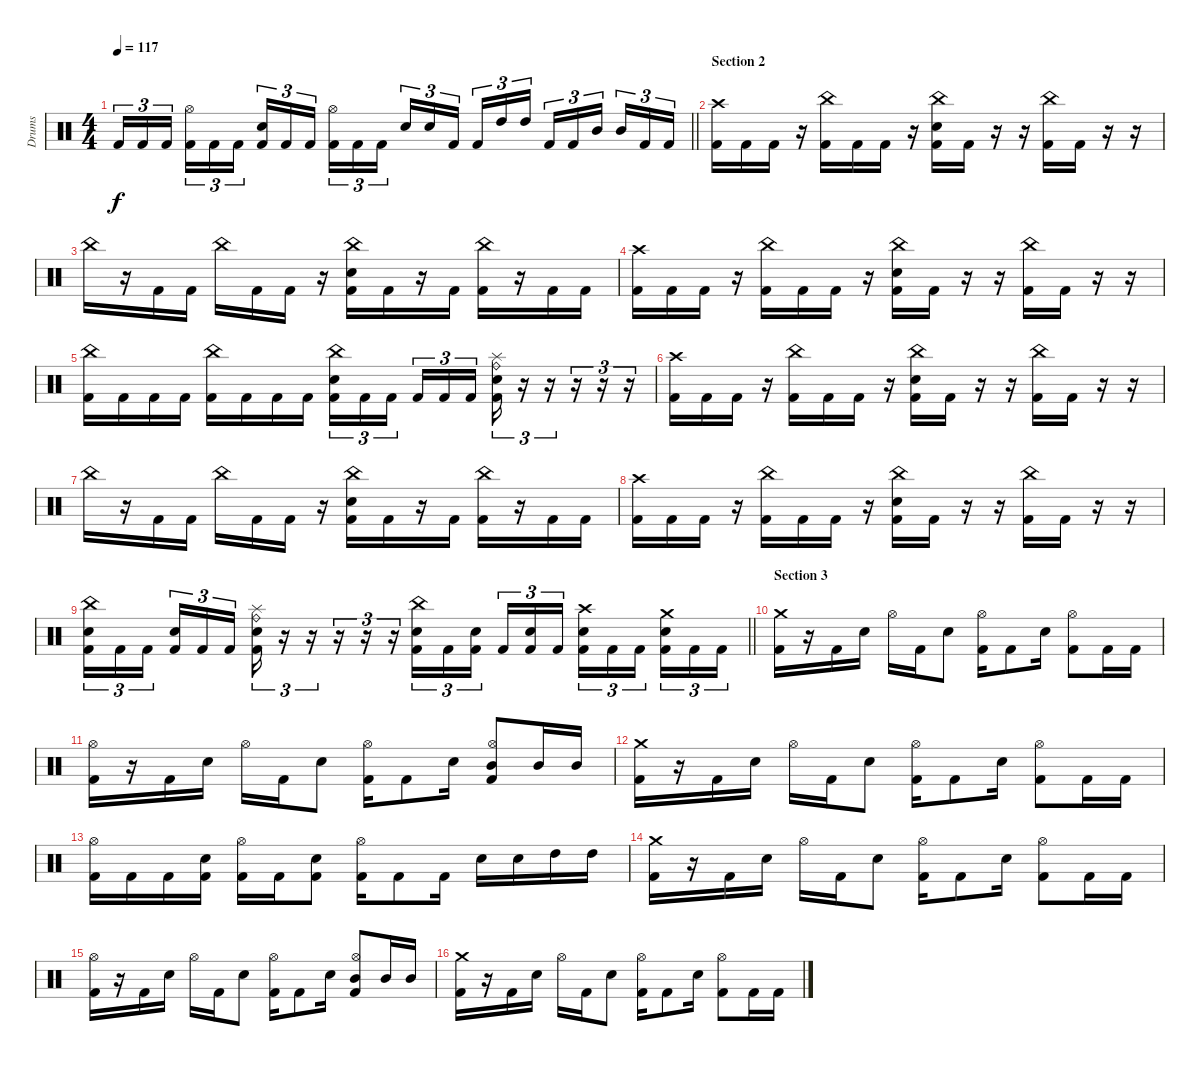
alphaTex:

\track ("Drums" "Drums") {instrument percussion}
\staff {score}
\articulation defaults
\ts (4 4)
\tempo 117
\clef neutral
\barLineRight lightlight
\ks c "Kick (hit) 2".16{tu (3 2) dy f} "Kick (hit) 2".16{tu (3 2)} "Kick (hit) 2".16{tu (3 2) beam splitsecondary}
("Hi-Hat (open)" "Kick (hit) 2").16{tu (3 2)} "Kick (hit) 2".16{tu (3 2)} "Kick (hit) 2".16{tu (3 2)} ("Snare (hit) 2" "Kick (hit) 2").16{tu (3 2)} "Kick (hit) 2".16{tu (3 2)} "Kick (hit) 2".16{tu (3 2) beam splitsecondary} ("Hi-Hat (open)" "Kick (hit) 2").16{tu (3 2)} "Kick (hit) 2".16{tu (3 2)} "Kick (hit) 2".16{tu (3 2)} "Snare (hit) 2".16{tu (3 2)} "Snare (hit) 2".16{tu (3 2)} "Kick (hit) 2".16{tu (3 2) beam splitsecondary} "Kick (hit) 2".16{tu (3 2)} "High Tom (hit)".16{tu (3 2)} "High Tom (hit)".16{tu (3 2)} "Kick (hit) 2".16{tu (3 2)} "Kick (hit) 2".16{tu (3 2)} "Mid Tom (hit)".16{tu (3 2) beam splitsecondary} "Mid Tom (hit)".16{tu (3 2)} "Kick (hit) 2".16{tu (3 2)} "Kick (hit) 2".16{tu (3 2)} |
\section ("" "Section 2")
("Crash high (hit)" "Kick (hit) 2").16 "Kick (hit) 2".16 "Kick (hit) 2".16 r.16 ("China (hit)" "Kick (hit) 2").16 "Kick (hit) 2".16 "Kick (hit) 2".16 r.16 ("China (hit)" "Snare (hit) 2" "Kick (hit) 2").16 "Kick (hit) 2".16 r.16 r.16 ("China (hit)" "Kick (hit) 2").16 "Kick (hit) 2".16 r.16 r.16 |
"China (hit)".16 r.16 "Kick (hit) 2".16 "Kick (hit) 2".16 "China (hit)".16 "Kick (hit) 2".16 "Kick (hit) 2".16 r.16 ("China (hit)" "Snare (hit) 2" "Kick (hit) 2").16 "Kick (hit) 2".16 r.16 "Kick (hit) 2".16 ("China (hit)" "Kick (hit) 2").16 r.16 "Kick (hit) 2".16 "Kick (hit) 2".16 |
("Crash high (hit)" "Kick (hit) 2").16 "Kick (hit) 2".16 "Kick (hit) 2".16 r.16 ("China (hit)" "Kick (hit) 2").16 "Kick (hit) 2".16 "Kick (hit) 2".16 r.16 ("China (hit)" "Snare (hit) 2" "Kick (hit) 2").16 "Kick (hit) 2".16 r.16 r.16 ("China (hit)" "Kick (hit) 2").16 "Kick (hit) 2".16 r.16 r.16 |
("China (hit)" "Kick (hit) 2").16 "Kick (hit) 2".16 "Kick (hit) 2".16 "Kick (hit) 2".16 ("China (hit)" "Kick (hit) 2").16 "Kick (hit) 2".16 "Kick (hit) 2".16 "Kick (hit) 2".16 ("China (hit)" "Snare (hit) 2" "Kick (hit) 2").16{tu (3 2)} "Kick (hit) 2".16{tu (3 2)} "Kick (hit) 2".16{tu (3 2) beam splitsecondary} "Kick (hit) 2".16{tu (3 2)} "Kick (hit) 2".16{tu (3 2)} "Kick (hit) 2".16{tu (3 2)} ("Ride (bell)" "Splash (hit)" "Snare (hit) 2" "Kick (hit) 2").16{tu (3 2)} r.16{tu (3 2)} r.16{tu (3 2)} r.16{tu (3 2)} r.16{tu (3 2)} r.16{tu (3 2)} |
("Crash high (hit)" "Kick (hit) 2").16 "Kick (hit) 2".16 "Kick (hit) 2".16 r.16 ("China (hit)" "Kick (hit) 2").16 "Kick (hit) 2".16 "Kick (hit) 2".16 r.16 ("China (hit)" "Snare (hit) 2" "Kick (hit) 2").16 "Kick (hit) 2".16 r.16 r.16 ("China (hit)" "Kick (hit) 2").16 "Kick (hit) 2".16 r.16 r.16 |
"China (hit)".16 r.16 "Kick (hit) 2".16 "Kick (hit) 2".16 "China (hit)".16 "Kick (hit) 2".16 "Kick (hit) 2".16 r.16 ("China (hit)" "Snare (hit) 2" "Kick (hit) 2").16 "Kick (hit) 2".16 r.16 "Kick (hit) 2".16 ("China (hit)" "Kick (hit) 2").16 r.16 "Kick (hit) 2".16 "Kick (hit) 2".16 |
("Crash high (hit)" "Kick (hit) 2").16 "Kick (hit) 2".16 "Kick (hit) 2".16 r.16 ("China (hit)" "Kick (hit) 2").16 "Kick (hit) 2".16 "Kick (hit) 2".16 r.16 ("China (hit)" "Snare (hit) 2" "Kick (hit) 2").16 "Kick (hit) 2".16 r.16 r.16 ("China (hit)" "Kick (hit) 2").16 "Kick (hit) 2".16 r.16 r.16 |
\barLineRight lightlight
("China (hit)" "Snare (hit) 2" "Kick (hit) 2").16{tu (3 2)} "Kick (hit) 2".16{tu (3 2)} "Kick (hit) 2".16{tu (3 2) beam splitsecondary} ("Snare (hit) 2" "Kick (hit) 2").16{tu (3 2)} "Kick (hit) 2".16{tu (3 2)} "Kick (hit) 2".16{tu (3 2)} ("Splash (hit)" "Ride (bell)" "Snare (hit) 2" "Kick (hit) 2").16{tu (3 2)} r.16{tu (3 2)} r.16{tu (3 2)} r.16{tu (3 2)} r.16{tu (3 2)} r.16{tu (3 2)} ("China (hit)" "Snare (hit) 2" "Kick (hit) 2").16{tu (3 2)} "Kick (hit) 2".16{tu (3 2)} ("Snare (hit) 2" "Kick (hit) 2").16{tu (3 2) beam splitsecondary} "Kick (hit) 2".16{tu (3 2)} ("Snare (hit) 2" "Kick (hit) 2").16{tu (3 2)} "Kick (hit) 2".16{tu (3 2)} ("Crash high (hit)" "Snare (hit) 2" "Kick (hit) 2").16{tu (3 2)} "Kick (hit) 2".16{tu (3 2)} "Kick (hit) 2".16{tu (3 2) beam splitsecondary} ("Crash medium (hit)" "Snare (hit) 2" "Kick (hit) 2").16{tu (3 2)} "Kick (hit) 2".16{tu (3 2)} "Kick (hit) 2".16{tu (3 2)} |
\section ("" "Section 3")
("Crash medium (hit)" "Kick (hit) 2").16 r.16 "Kick (hit) 2".16 "Snare (hit) 2".16 "Hi-Hat (open)".16 "Kick (hit) 2".16 "Snare (hit) 2".8 ("Hi-Hat (open)" "Kick (hit) 2").16 "Kick (hit) 2".8 "Snare (hit) 2".16 ("Hi-Hat (open)" "Kick (hit) 2").8 "Kick (hit) 2".16 "Kick (hit) 2".16 |
("Hi-Hat (open)" "Kick (hit) 2").16 r.16 "Kick (hit) 2".16 "Snare (hit) 2".16 "Hi-Hat (open)".16 "Kick (hit) 2".16 "Snare (hit) 2".8 ("Hi-Hat (open)" "Kick (hit) 2").16 "Kick (hit) 2".8 "Snare (hit) 2".16 ("Hi-Hat (open)" "Mid Tom (hit)" "Kick (hit) 2").8 "Mid Tom (hit)".16 "Mid Tom (hit)".16 |
("Crash medium (hit)" "Kick (hit) 2").16 r.16 "Kick (hit) 2".16 "Snare (hit) 2".16 "Hi-Hat (open)".16 "Kick (hit) 2".16 "Snare (hit) 2".8 ("Hi-Hat (open)" "Kick (hit) 2").16 "Kick (hit) 2".8 "Snare (hit) 2".16 ("Hi-Hat (open)" "Kick (hit) 2").8 "Kick (hit) 2".16 "Kick (hit) 2".16 |
("Hi-Hat (open)" "Kick (hit) 2").16 "Kick (hit) 2".16 "Kick (hit) 2".16 ("Snare (hit) 2" "Kick (hit) 2").16 ("Hi-Hat (open)" "Kick (hit) 2").16 "Kick (hit) 2".16 ("Snare (hit) 2" "Kick (hit) 2").8 ("Hi-Hat (open)" "Kick (hit) 2").16 "Kick (hit) 2".8 "Kick (hit) 2".16 "Snare (hit) 2".16 "Snare (hit) 2".16 "High Tom (hit)".16 "High Tom (hit)".16 |
("Crash medium (hit)" "Kick (hit) 2").16 r.16 "Kick (hit) 2".16 "Snare (hit) 2".16 "Hi-Hat (open)".16 "Kick (hit) 2".16 "Snare (hit) 2".8 ("Hi-Hat (open)" "Kick (hit) 2").16 "Kick (hit) 2".8 "Snare (hit) 2".16 ("Hi-Hat (open)" "Kick (hit) 2").8 "Kick (hit) 2".16 "Kick (hit) 2".16 |
("Hi-Hat (open)" "Kick (hit) 2").16 r.16 "Kick (hit) 2".16 "Snare (hit) 2".16 "Hi-Hat (open)".16 "Kick (hit) 2".16 "Snare (hit) 2".8 ("Hi-Hat (open)" "Kick (hit) 2").16 "Kick (hit) 2".8 "Snare (hit) 2".16 ("Hi-Hat (open)" "Mid Tom (hit)" "Kick (hit) 2").8 "Mid Tom (hit)".16 "Mid Tom (hit)".16 |
("Crash medium (hit)" "Kick (hit) 2").16 r.16 "Kick (hit) 2".16 "Snare (hit) 2".16 "Hi-Hat (open)".16 "Kick (hit) 2".16 "Snare (hit) 2".8 ("Hi-Hat (open)" "Kick (hit) 2").16 "Kick (hit) 2".8 "Snare (hit) 2".16 ("Hi-Hat (open)" "Kick (hit) 2").8 "Kick (hit) 2".16 "Kick (hit) 2".16
